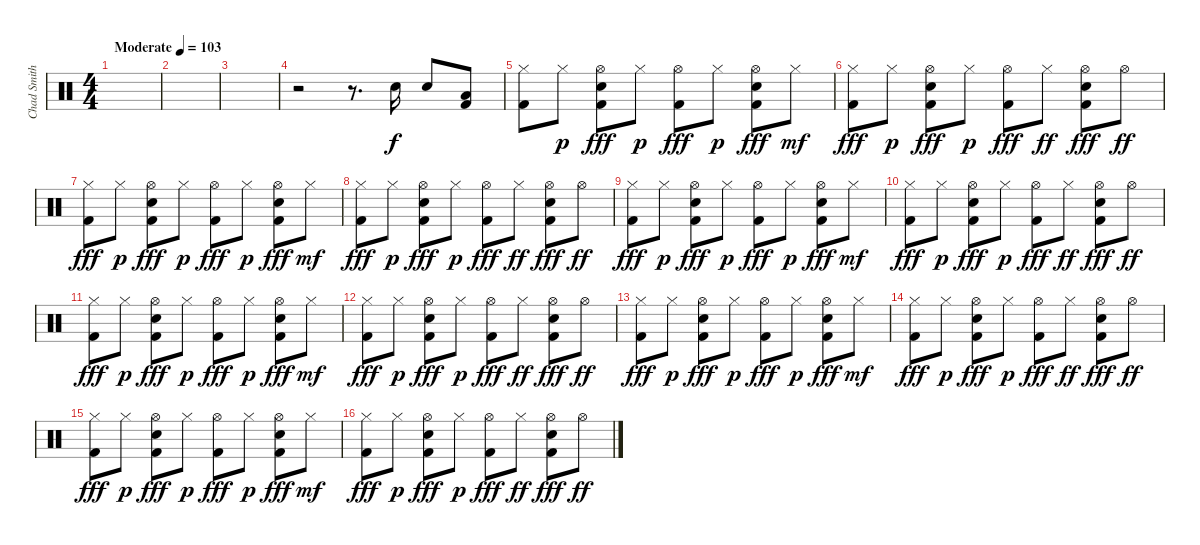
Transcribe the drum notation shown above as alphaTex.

\track ("Chad Smith - Drums" "Chad Smith") {instrument percussion}
\staff {score}
\articulation defaults
\ts (4 4)
\tempo (103 "Moderate")
\clef neutral
\ks c
|
|
|
r.2 r.8{d} "Snare (hit) 2".16 "Snare (hit) 2".8 ("Low Floor Tom (hit)" "Kick (hit) 2").8 |
("Hi-Hat (closed)" "Kick (hit) 2").8 "Hi-Hat (closed)".8{dy p} ("Hi-Hat (open)" "Snare (hit) 2" "Kick (hit) 2").8{dy fff} "Hi-Hat (closed)".8{dy p} ("Hi-Hat (open)" "Kick (hit) 2").8{dy fff} "Hi-Hat (closed)".8{dy p} ("Hi-Hat (open)" "Snare (hit) 2" "Kick (hit) 2").8{dy fff} "Hi-Hat (closed)".8{dy mf} |
("Hi-Hat (closed)" "Kick (hit) 2").8{dy fff} "Hi-Hat (closed)".8{dy p} ("Hi-Hat (open)" "Snare (hit) 2" "Kick (hit) 2").8{dy fff} "Hi-Hat (closed)".8{dy p} ("Hi-Hat (open)" "Kick (hit) 2").8{dy fff} "Hi-Hat (closed)".8{dy ff} ("Hi-Hat (open)" "Snare (hit) 2" "Kick (hit) 2").8{dy fff} "Hi-Hat (open)".8{dy ff} |
("Hi-Hat (closed)" "Kick (hit) 2").8{dy fff} "Hi-Hat (closed)".8{dy p} ("Hi-Hat (open)" "Snare (hit) 2" "Kick (hit) 2").8{dy fff} "Hi-Hat (closed)".8{dy p} ("Hi-Hat (open)" "Kick (hit) 2").8{dy fff} "Hi-Hat (closed)".8{dy p} ("Hi-Hat (open)" "Snare (hit) 2" "Kick (hit) 2").8{dy fff} "Hi-Hat (closed)".8{dy mf} |
("Hi-Hat (closed)" "Kick (hit) 2").8{dy fff} "Hi-Hat (closed)".8{dy p} ("Hi-Hat (open)" "Snare (hit) 2" "Kick (hit) 2").8{dy fff} "Hi-Hat (closed)".8{dy p} ("Hi-Hat (open)" "Kick (hit) 2").8{dy fff} "Hi-Hat (closed)".8{dy ff} ("Hi-Hat (open)" "Snare (hit) 2" "Kick (hit) 2").8{dy fff} "Hi-Hat (open)".8{dy ff} |
("Hi-Hat (closed)" "Kick (hit) 2").8{dy fff} "Hi-Hat (closed)".8{dy p} ("Hi-Hat (open)" "Snare (hit) 2" "Kick (hit) 2").8{dy fff} "Hi-Hat (closed)".8{dy p} ("Hi-Hat (open)" "Kick (hit) 2").8{dy fff} "Hi-Hat (closed)".8{dy p} ("Hi-Hat (open)" "Snare (hit) 2" "Kick (hit) 2").8{dy fff} "Hi-Hat (closed)".8{dy mf} |
("Hi-Hat (closed)" "Kick (hit) 2").8{dy fff} "Hi-Hat (closed)".8{dy p} ("Hi-Hat (open)" "Snare (hit) 2" "Kick (hit) 2").8{dy fff} "Hi-Hat (closed)".8{dy p} ("Hi-Hat (open)" "Kick (hit) 2").8{dy fff} "Hi-Hat (closed)".8{dy ff} ("Hi-Hat (open)" "Snare (hit) 2" "Kick (hit) 2").8{dy fff} "Hi-Hat (open)".8{dy ff} |
("Hi-Hat (closed)" "Kick (hit) 2").8{dy fff} "Hi-Hat (closed)".8{dy p} ("Hi-Hat (open)" "Snare (hit) 2" "Kick (hit) 2").8{dy fff} "Hi-Hat (closed)".8{dy p} ("Hi-Hat (open)" "Kick (hit) 2").8{dy fff} "Hi-Hat (closed)".8{dy p} ("Hi-Hat (open)" "Snare (hit) 2" "Kick (hit) 2").8{dy fff} "Hi-Hat (closed)".8{dy mf} |
("Hi-Hat (closed)" "Kick (hit) 2").8{dy fff} "Hi-Hat (closed)".8{dy p} ("Hi-Hat (open)" "Snare (hit) 2" "Kick (hit) 2").8{dy fff} "Hi-Hat (closed)".8{dy p} ("Hi-Hat (open)" "Kick (hit) 2").8{dy fff} "Hi-Hat (closed)".8{dy ff} ("Hi-Hat (open)" "Snare (hit) 2" "Kick (hit) 2").8{dy fff} "Hi-Hat (open)".8{dy ff} |
("Hi-Hat (closed)" "Kick (hit) 2").8{dy fff} "Hi-Hat (closed)".8{dy p} ("Hi-Hat (open)" "Snare (hit) 2" "Kick (hit) 2").8{dy fff} "Hi-Hat (closed)".8{dy p} ("Hi-Hat (open)" "Kick (hit) 2").8{dy fff} "Hi-Hat (closed)".8{dy p} ("Hi-Hat (open)" "Snare (hit) 2" "Kick (hit) 2").8{dy fff} "Hi-Hat (closed)".8{dy mf} |
("Hi-Hat (closed)" "Kick (hit) 2").8{dy fff} "Hi-Hat (closed)".8{dy p} ("Hi-Hat (open)" "Snare (hit) 2" "Kick (hit) 2").8{dy fff} "Hi-Hat (closed)".8{dy p} ("Hi-Hat (open)" "Kick (hit) 2").8{dy fff} "Hi-Hat (closed)".8{dy ff} ("Hi-Hat (open)" "Snare (hit) 2" "Kick (hit) 2").8{dy fff} "Hi-Hat (open)".8{dy ff} |
("Hi-Hat (closed)" "Kick (hit) 2").8{dy fff} "Hi-Hat (closed)".8{dy p} ("Hi-Hat (open)" "Snare (hit) 2" "Kick (hit) 2").8{dy fff} "Hi-Hat (closed)".8{dy p} ("Hi-Hat (open)" "Kick (hit) 2").8{dy fff} "Hi-Hat (closed)".8{dy p} ("Hi-Hat (open)" "Snare (hit) 2" "Kick (hit) 2").8{dy fff} "Hi-Hat (closed)".8{dy mf} |
("Hi-Hat (closed)" "Kick (hit) 2").8{dy fff} "Hi-Hat (closed)".8{dy p} ("Hi-Hat (open)" "Snare (hit) 2" "Kick (hit) 2").8{dy fff} "Hi-Hat (closed)".8{dy p} ("Hi-Hat (open)" "Kick (hit) 2").8{dy fff} "Hi-Hat (closed)".8{dy ff} ("Hi-Hat (open)" "Snare (hit) 2" "Kick (hit) 2").8{dy fff} "Hi-Hat (open)".8{dy ff}
